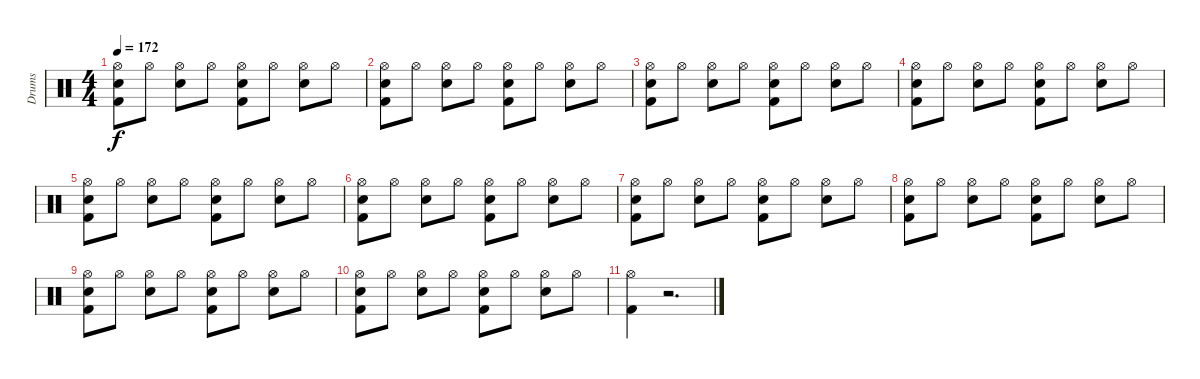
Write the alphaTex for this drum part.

\track ("Drums" "Drums") {instrument percussion}
\staff {score}
\articulation defaults
\ts (4 4)
\tempo 172
\clef neutral
\ks c
("Kick (hit) 2" "Electric Snare (hit)" "Hi-Hat (open)").8{dy f} "Hi-Hat (open)".8 ("Electric Snare (hit)" "Hi-Hat (open)").8 "Hi-Hat (open)".8 ("Kick (hit) 2" "Electric Snare (hit)" "Hi-Hat (open)").8 "Hi-Hat (open)".8 ("Electric Snare (hit)" "Hi-Hat (open)").8 "Hi-Hat (open)".8 |
("Kick (hit) 2" "Electric Snare (hit)" "Hi-Hat (open)").8 "Hi-Hat (open)".8 ("Electric Snare (hit)" "Hi-Hat (open)").8 "Hi-Hat (open)".8 ("Kick (hit) 2" "Electric Snare (hit)" "Hi-Hat (open)").8 "Hi-Hat (open)".8 ("Electric Snare (hit)" "Hi-Hat (open)").8 "Hi-Hat (open)".8 |
("Kick (hit) 2" "Electric Snare (hit)" "Hi-Hat (open)").8 "Hi-Hat (open)".8 ("Electric Snare (hit)" "Hi-Hat (open)").8 "Hi-Hat (open)".8 ("Kick (hit) 2" "Electric Snare (hit)" "Hi-Hat (open)").8 "Hi-Hat (open)".8 ("Electric Snare (hit)" "Hi-Hat (open)").8 "Hi-Hat (open)".8 |
("Kick (hit) 2" "Electric Snare (hit)" "Hi-Hat (open)").8 "Hi-Hat (open)".8 ("Electric Snare (hit)" "Hi-Hat (open)").8 "Hi-Hat (open)".8 ("Kick (hit) 2" "Electric Snare (hit)" "Hi-Hat (open)").8 "Hi-Hat (open)".8 ("Electric Snare (hit)" "Hi-Hat (open)").8 "Hi-Hat (open)".8 |
("Kick (hit) 2" "Electric Snare (hit)" "Hi-Hat (open)").8 "Hi-Hat (open)".8 ("Electric Snare (hit)" "Hi-Hat (open)").8 "Hi-Hat (open)".8 ("Kick (hit) 2" "Electric Snare (hit)" "Hi-Hat (open)").8 "Hi-Hat (open)".8 ("Electric Snare (hit)" "Hi-Hat (open)").8 "Hi-Hat (open)".8 |
("Kick (hit) 2" "Electric Snare (hit)" "Hi-Hat (open)").8 "Hi-Hat (open)".8 ("Electric Snare (hit)" "Hi-Hat (open)").8 "Hi-Hat (open)".8 ("Kick (hit) 2" "Electric Snare (hit)" "Hi-Hat (open)").8 "Hi-Hat (open)".8 ("Electric Snare (hit)" "Hi-Hat (open)").8 "Hi-Hat (open)".8 |
("Kick (hit) 2" "Electric Snare (hit)" "Hi-Hat (open)").8 "Hi-Hat (open)".8 ("Electric Snare (hit)" "Hi-Hat (open)").8 "Hi-Hat (open)".8 ("Kick (hit) 2" "Electric Snare (hit)" "Hi-Hat (open)").8 "Hi-Hat (open)".8 ("Electric Snare (hit)" "Hi-Hat (open)").8 "Hi-Hat (open)".8 |
("Kick (hit) 2" "Electric Snare (hit)" "Hi-Hat (open)").8 "Hi-Hat (open)".8 ("Electric Snare (hit)" "Hi-Hat (open)").8 "Hi-Hat (open)".8 ("Kick (hit) 2" "Electric Snare (hit)" "Hi-Hat (open)").8 "Hi-Hat (open)".8 ("Electric Snare (hit)" "Hi-Hat (open)").8 "Hi-Hat (open)".8 |
("Kick (hit) 2" "Electric Snare (hit)" "Hi-Hat (open)").8 "Hi-Hat (open)".8 ("Electric Snare (hit)" "Hi-Hat (open)").8 "Hi-Hat (open)".8 ("Kick (hit) 2" "Electric Snare (hit)" "Hi-Hat (open)").8 "Hi-Hat (open)".8 ("Electric Snare (hit)" "Hi-Hat (open)").8 "Hi-Hat (open)".8 |
("Kick (hit) 2" "Electric Snare (hit)" "Hi-Hat (open)").8 "Hi-Hat (open)".8 ("Electric Snare (hit)" "Hi-Hat (open)").8 "Hi-Hat (open)".8 ("Kick (hit) 2" "Electric Snare (hit)" "Hi-Hat (open)").8 "Hi-Hat (open)".8 ("Electric Snare (hit)" "Hi-Hat (open)").8 "Hi-Hat (open)".8 |
("Kick (hit) 2" "Hi-Hat (open)").4 r.2{d}
